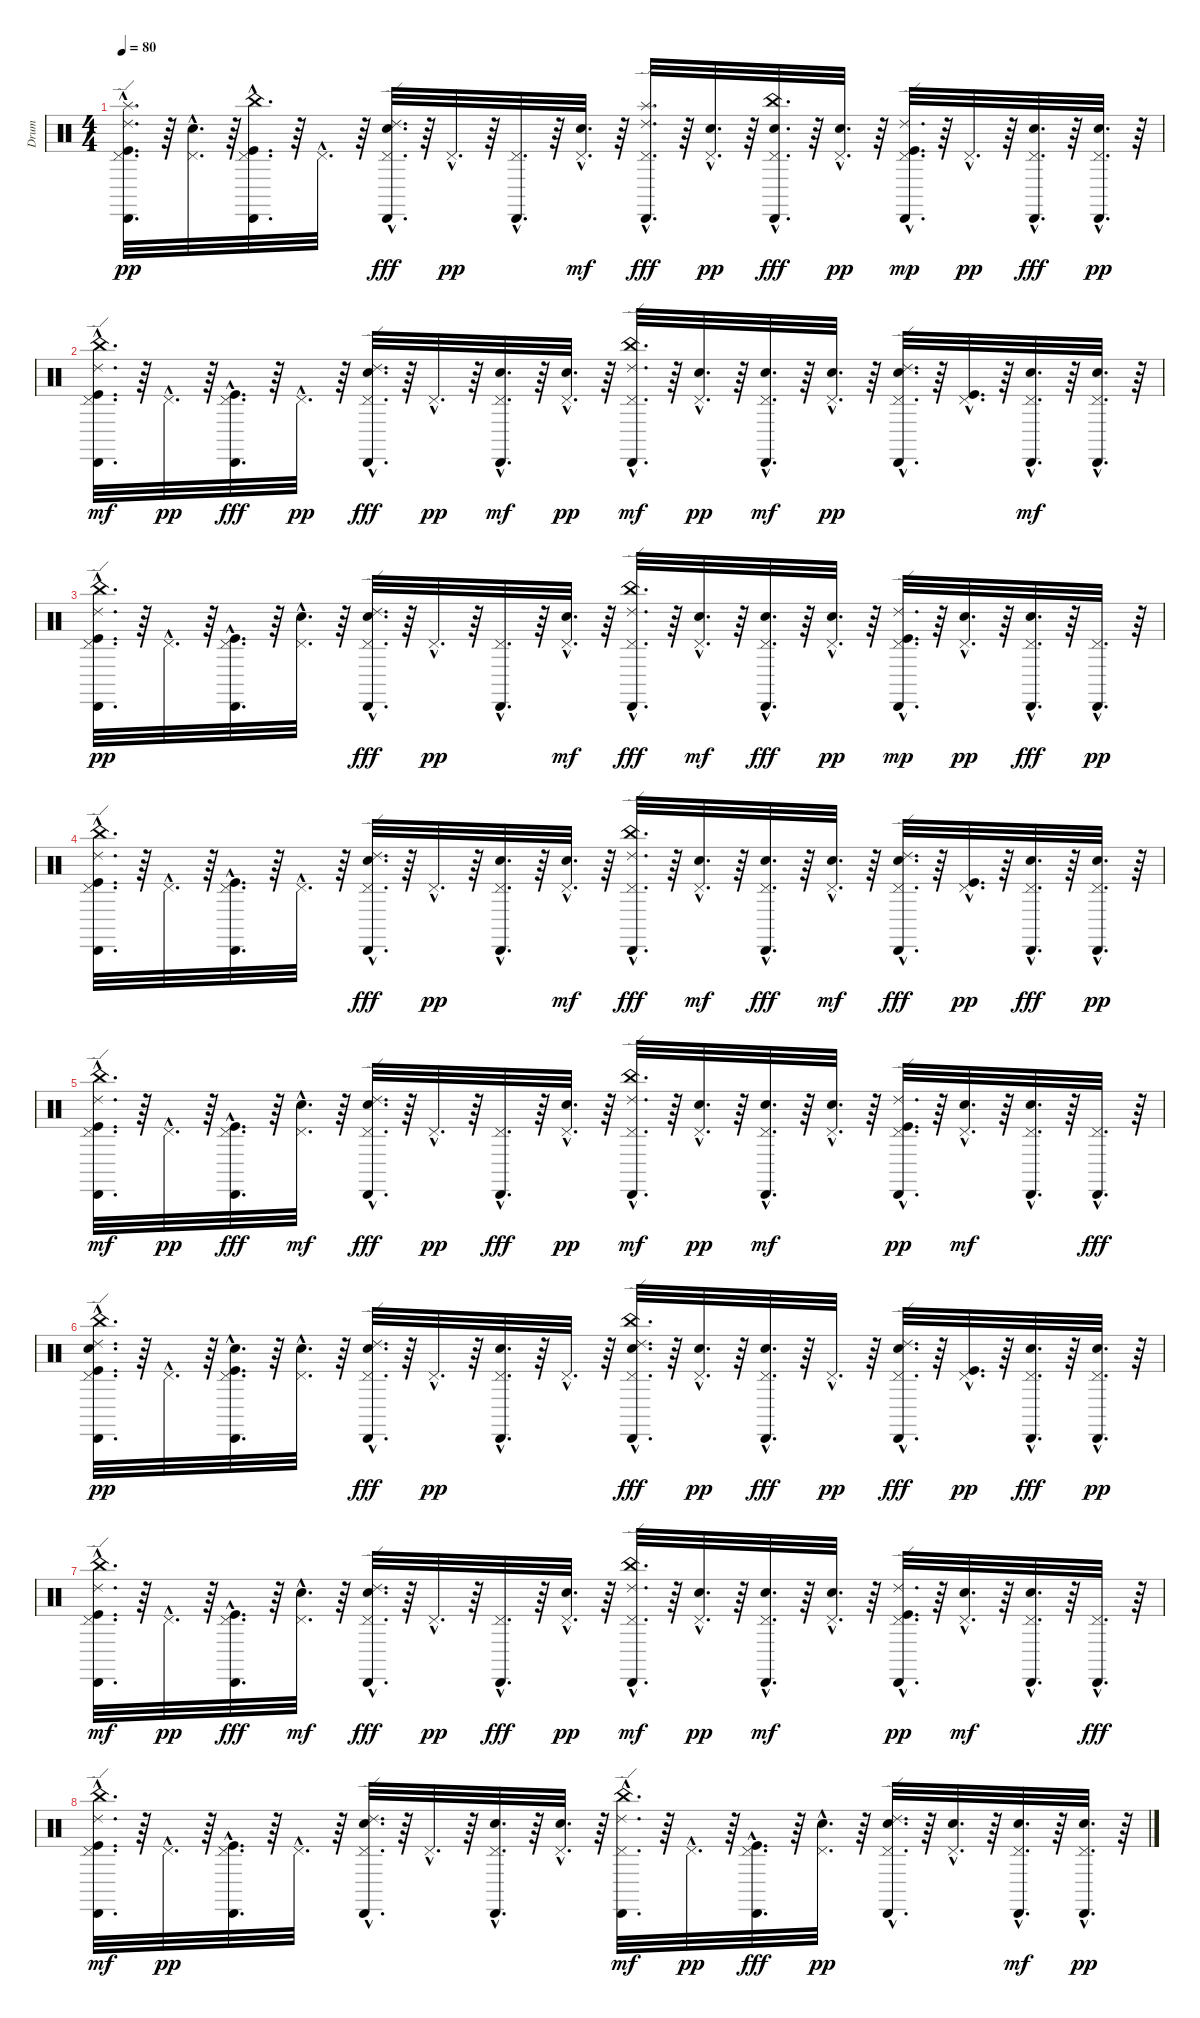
\track ("Drum" "Drum") {instrument percussion}
\staff {score}
\articulation defaults
\ts (4 4)
\tempo 80
\clef neutral
\ks c
("Splash (hit)"{hac} "Ride (edge) 2"{hac} "Kick (hit)"{hac} "Cabasa (hit)"{hac} "Pedal Hi-Hat (hit)"{hac}).32{d dy pp} r.64 ("Pedal Hi-Hat (hit)"{hac} "Snare (hit) 2"{hac}).32{d} r.64 ("China (hit)"{hac} "Kick (hit)"{hac} "Cabasa (hit)"{hac} "Pedal Hi-Hat (hit)"{hac}).32{d} r.64 "Pedal Hi-Hat (hit)"{hac}.32{d} r.64 ("Cabasa (hit)"{hac} "Snare (hit) 2"{hac} "Pedal Hi-Hat (hit)"{hac} "Ride (edge) 2"{hac}).32{d dy fff} r.64 "Pedal Hi-Hat (hit)"{hac}.32{d dy pp} r.64 ("Cabasa (hit)"{hac} "Pedal Hi-Hat (hit)"{hac}).32{d} r.64 ("Pedal Hi-Hat (hit)"{hac} "Snare (hit) 2"{hac}).32{d dy mf} r.64 ("Splash (hit)"{hac} "Pedal Hi-Hat (hit)"{hac} "Cabasa (hit)"{hac} "Ride (edge) 2"{hac}).32{d dy fff} r.64 ("Pedal Hi-Hat (hit)"{hac} "Snare (hit) 2"{hac}).32{d dy pp} r.64 ("China (hit)"{hac} "Snare (hit) 2"{hac} "Pedal Hi-Hat (hit)"{hac} "Cabasa (hit)"{hac}).32{d dy fff} r.64 ("Snare (hit) 2"{hac} "Pedal Hi-Hat (hit)"{hac}).32{d dy pp} r.64 ("Pedal Hi-Hat (hit)"{hac} "Cabasa (hit)"{hac} "Ride (edge) 2"{hac} "Kick (hit)"{hac}).32{d dy mp} r.64 "Pedal Hi-Hat (hit)"{hac}.32{d dy pp} r.64 ("Snare (hit) 2"{hac} "Pedal Hi-Hat (hit)"{hac} "Cabasa (hit)"{hac}).32{d dy fff} r.64 ("Snare (hit) 2"{hac} "Cabasa (hit)"{hac} "Pedal Hi-Hat (hit)"{hac}).32{d dy pp} r.64 |
("Pedal Hi-Hat (hit)"{hac} "Cabasa (hit)"{hac} "Kick (hit)"{hac} "Ride (edge) 2"{hac} "China (hit)"{hac}).32{d dy mf} r.64 "Pedal Hi-Hat (hit)"{hac}.32{d dy pp} r.64 ("Pedal Hi-Hat (hit)"{hac} "Cabasa (hit)"{hac} "Kick (hit)"{hac}).32{d dy fff} r.64 "Pedal Hi-Hat (hit)"{hac}.32{d dy pp} r.64 ("Ride (edge) 2"{hac} "Pedal Hi-Hat (hit)"{hac} "Snare (hit) 2"{hac} "Cabasa (hit)"{hac}).32{d dy fff} r.64 "Pedal Hi-Hat (hit)"{hac}.32{d dy pp} r.64 ("Pedal Hi-Hat (hit)"{hac} "Cabasa (hit)"{hac} "Snare (hit) 2"{hac}).32{d dy mf} r.64 ("Snare (hit) 2"{hac} "Pedal Hi-Hat (hit)"{hac}).32{d dy pp} r.64 ("Ride (edge) 2"{hac} "Cabasa (hit)"{hac} "Pedal Hi-Hat (hit)"{hac} "China (hit)"{hac}).32{d dy mf} r.64 ("Snare (hit) 2"{hac} "Pedal Hi-Hat (hit)"{hac}).32{d dy pp} r.64 ("Cabasa (hit)"{hac} "Pedal Hi-Hat (hit)"{hac} "Snare (hit) 2"{hac}).32{d dy mf} r.64 ("Snare (hit) 2"{hac} "Pedal Hi-Hat (hit)"{hac}).32{d dy pp} r.64 ("Ride (edge) 2"{hac} "Cabasa (hit)"{hac} "Snare (hit) 2"{hac} "Pedal Hi-Hat (hit)"{hac}).32{d} r.64 ("Pedal Hi-Hat (hit)"{hac} "Kick (hit)"{hac}).32{d} r.64 ("Cabasa (hit)"{hac} "Pedal Hi-Hat (hit)"{hac} "Snare (hit) 2"{hac}).32{d dy mf} r.64 ("Pedal Hi-Hat (hit)"{hac} "Cabasa (hit)"{hac} "Snare (hit) 2"{hac}).32{d} r.64 |
("China (hit)"{hac} "Ride (edge) 2"{hac} "Kick (hit)"{hac} "Cabasa (hit)"{hac} "Pedal Hi-Hat (hit)"{hac}).32{d dy pp} r.64 "Pedal Hi-Hat (hit)"{hac}.32{d} r.64 ("Kick (hit)"{hac} "Cabasa (hit)"{hac} "Pedal Hi-Hat (hit)"{hac}).32{d} r.64 ("Snare (hit) 2"{hac} "Pedal Hi-Hat (hit)"{hac}).32{d} r.64 ("Cabasa (hit)"{hac} "Snare (hit) 2"{hac} "Pedal Hi-Hat (hit)"{hac} "Ride (edge) 2"{hac}).32{d dy fff} r.64 "Pedal Hi-Hat (hit)"{hac}.32{d dy pp} r.64 ("Cabasa (hit)"{hac} "Pedal Hi-Hat (hit)"{hac}).32{d} r.64 ("Pedal Hi-Hat (hit)"{hac} "Snare (hit) 2"{hac}).32{d dy mf} r.64 ("China (hit)"{hac} "Pedal Hi-Hat (hit)"{hac} "Cabasa (hit)"{hac} "Ride (edge) 2"{hac}).32{d dy fff} r.64 ("Pedal Hi-Hat (hit)"{hac} "Snare (hit) 2"{hac}).32{d dy mf} r.64 ("Snare (hit) 2"{hac} "Pedal Hi-Hat (hit)"{hac} "Cabasa (hit)"{hac}).32{d dy fff} r.64 ("Snare (hit) 2"{hac} "Pedal Hi-Hat (hit)"{hac}).32{d dy pp} r.64 ("Pedal Hi-Hat (hit)"{hac} "Cabasa (hit)"{hac} "Ride (edge) 2"{hac} "Kick (hit)"{hac}).32{d dy mp} r.64 ("Snare (hit) 2"{hac} "Pedal Hi-Hat (hit)"{hac}).32{d dy pp} r.64 ("Snare (hit) 2"{hac} "Pedal Hi-Hat (hit)"{hac} "Cabasa (hit)"{hac}).32{d dy fff} r.64 ("Cabasa (hit)"{hac} "Pedal Hi-Hat (hit)"{hac}).32{d dy pp} r.64 |
("China (hit)"{hac} "Ride (edge) 2"{hac} "Kick (hit)"{hac} "Cabasa (hit)"{hac} "Pedal Hi-Hat (hit)"{hac}).32{d} r.64 "Pedal Hi-Hat (hit)"{hac}.32{d} r.64 ("Kick (hit)"{hac} "Cabasa (hit)"{hac} "Pedal Hi-Hat (hit)"{hac}).32{d} r.64 "Pedal Hi-Hat (hit)"{hac}.32{d} r.64 ("Cabasa (hit)"{hac} "Snare (hit) 2"{hac} "Pedal Hi-Hat (hit)"{hac} "Ride (edge) 2"{hac}).32{d dy fff} r.64 "Pedal Hi-Hat (hit)"{hac}.32{d dy pp} r.64 ("Snare (hit) 2"{hac} "Cabasa (hit)"{hac} "Pedal Hi-Hat (hit)"{hac}).32{d} r.64 ("Pedal Hi-Hat (hit)"{hac} "Snare (hit) 2"{hac}).32{d dy mf} r.64 ("China (hit)"{hac} "Pedal Hi-Hat (hit)"{hac} "Cabasa (hit)"{hac} "Ride (edge) 2"{hac}).32{d dy fff} r.64 ("Pedal Hi-Hat (hit)"{hac} "Snare (hit) 2"{hac}).32{d dy mf} r.64 ("Snare (hit) 2"{hac} "Pedal Hi-Hat (hit)"{hac} "Cabasa (hit)"{hac}).32{d dy fff} r.64 ("Pedal Hi-Hat (hit)"{hac} "Snare (hit) 2"{hac}).32{d dy mf} r.64 ("Pedal Hi-Hat (hit)"{hac} "Snare (hit) 2"{hac} "Cabasa (hit)"{hac} "Ride (edge) 2"{hac}).32{d dy fff} r.64 ("Kick (hit)"{hac} "Pedal Hi-Hat (hit)"{hac}).32{d dy pp} r.64 ("Snare (hit) 2"{hac} "Pedal Hi-Hat (hit)"{hac} "Cabasa (hit)"{hac}).32{d dy fff} r.64 ("Snare (hit) 2"{hac} "Cabasa (hit)"{hac} "Pedal Hi-Hat (hit)"{hac}).32{d dy pp} r.64 |
("Pedal Hi-Hat (hit)"{hac} "Cabasa (hit)"{hac} "Kick (hit)"{hac} "Ride (edge) 2"{hac} "China (hit)"{hac}).32{d dy mf} r.64 "Pedal Hi-Hat (hit)"{hac}.32{d dy pp} r.64 ("Pedal Hi-Hat (hit)"{hac} "Cabasa (hit)"{hac} "Kick (hit)"{hac}).32{d dy fff} r.64 ("Pedal Hi-Hat (hit)"{hac} "Snare (hit) 2"{hac}).32{d dy mf} r.64 ("Ride (edge) 2"{hac} "Pedal Hi-Hat (hit)"{hac} "Snare (hit) 2"{hac} "Cabasa (hit)"{hac}).32{d dy fff} r.64 "Pedal Hi-Hat (hit)"{hac}.32{d dy pp} r.64 ("Pedal Hi-Hat (hit)"{hac} "Cabasa (hit)"{hac}).32{d dy fff} r.64 ("Snare (hit) 2"{hac} "Pedal Hi-Hat (hit)"{hac}).32{d dy pp} r.64 ("Ride (edge) 2"{hac} "Cabasa (hit)"{hac} "Pedal Hi-Hat (hit)"{hac} "China (hit)"{hac}).32{d dy mf} r.64 ("Snare (hit) 2"{hac} "Pedal Hi-Hat (hit)"{hac}).32{d dy pp} r.64 ("Cabasa (hit)"{hac} "Pedal Hi-Hat (hit)"{hac} "Snare (hit) 2"{hac}).32{d dy mf} r.64 ("Pedal Hi-Hat (hit)"{hac} "Snare (hit) 2"{hac}).32{d} r.64 ("Kick (hit)"{hac} "Ride (edge) 2"{hac} "Cabasa (hit)"{hac} "Pedal Hi-Hat (hit)"{hac}).32{d dy pp} r.64 ("Pedal Hi-Hat (hit)"{hac} "Snare (hit) 2"{hac}).32{d dy mf} r.64 ("Cabasa (hit)"{hac} "Pedal Hi-Hat (hit)"{hac} "Snare (hit) 2"{hac}).32{d} r.64 ("Pedal Hi-Hat (hit)"{hac} "Cabasa (hit)"{hac}).32{d dy fff} r.64 |
("Snare (hit) 2"{hac} "China (hit)"{hac} "Ride (edge) 2"{hac} "Kick (hit)"{hac} "Cabasa (hit)"{hac} "Pedal Hi-Hat (hit)"{hac}).32{d dy pp} r.64 "Pedal Hi-Hat (hit)"{hac}.32{d} r.64 ("Snare (hit) 2"{hac} "Kick (hit)"{hac} "Cabasa (hit)"{hac} "Pedal Hi-Hat (hit)"{hac}).32{d} r.64 ("Snare (hit) 2"{hac} "Pedal Hi-Hat (hit)"{hac}).32{d} r.64 ("Snare (hit) 2"{hac} "Cabasa (hit)"{hac} "Pedal Hi-Hat (hit)"{hac} "Ride (edge) 2"{hac}).32{d dy fff} r.64 "Pedal Hi-Hat (hit)"{hac}.32{d dy pp} r.64 ("Snare (hit) 2"{hac} "Cabasa (hit)"{hac} "Pedal Hi-Hat (hit)"{hac}).32{d} r.64 "Pedal Hi-Hat (hit)"{hac}.32{d} r.64 ("Snare (hit) 2"{hac} "China (hit)"{hac} "Pedal Hi-Hat (hit)"{hac} "Cabasa (hit)"{hac} "Ride (edge) 2"{hac}).32{d dy fff} r.64 ("Snare (hit) 2"{hac} "Pedal Hi-Hat (hit)"{hac}).32{d dy pp} r.64 ("Snare (hit) 2"{hac} "Pedal Hi-Hat (hit)"{hac} "Cabasa (hit)"{hac}).32{d dy fff} r.64 "Pedal Hi-Hat (hit)"{hac}.32{d dy pp} r.64 ("Snare (hit) 2"{hac} "Pedal Hi-Hat (hit)"{hac} "Cabasa (hit)"{hac} "Ride (edge) 2"{hac}).32{d dy fff} r.64 ("Kick (hit)"{hac} "Pedal Hi-Hat (hit)"{hac}).32{d dy pp} r.64 ("Snare (hit) 2"{hac} "Pedal Hi-Hat (hit)"{hac} "Cabasa (hit)"{hac}).32{d dy fff} r.64 ("Snare (hit) 2"{hac} "Cabasa (hit)"{hac} "Pedal Hi-Hat (hit)"{hac}).32{d dy pp} r.64 |
("Pedal Hi-Hat (hit)"{hac} "Cabasa (hit)"{hac} "Kick (hit)"{hac} "Ride (edge) 2"{hac} "China (hit)"{hac}).32{d dy mf} r.64 "Pedal Hi-Hat (hit)"{hac}.32{d dy pp} r.64 ("Pedal Hi-Hat (hit)"{hac} "Cabasa (hit)"{hac} "Kick (hit)"{hac}).32{d dy fff} r.64 ("Pedal Hi-Hat (hit)"{hac} "Snare (hit) 2"{hac}).32{d dy mf} r.64 ("Ride (edge) 2"{hac} "Pedal Hi-Hat (hit)"{hac} "Snare (hit) 2"{hac} "Cabasa (hit)"{hac}).32{d dy fff} r.64 "Pedal Hi-Hat (hit)"{hac}.32{d dy pp} r.64 ("Pedal Hi-Hat (hit)"{hac} "Cabasa (hit)"{hac}).32{d dy fff} r.64 ("Snare (hit) 2"{hac} "Pedal Hi-Hat (hit)"{hac}).32{d dy pp} r.64 ("Ride (edge) 2"{hac} "Cabasa (hit)"{hac} "Pedal Hi-Hat (hit)"{hac} "China (hit)"{hac}).32{d dy mf} r.64 ("Snare (hit) 2"{hac} "Pedal Hi-Hat (hit)"{hac}).32{d dy pp} r.64 ("Cabasa (hit)"{hac} "Pedal Hi-Hat (hit)"{hac} "Snare (hit) 2"{hac}).32{d dy mf} r.64 ("Pedal Hi-Hat (hit)"{hac} "Snare (hit) 2"{hac}).32{d} r.64 ("Kick (hit)"{hac} "Ride (edge) 2"{hac} "Cabasa (hit)"{hac} "Pedal Hi-Hat (hit)"{hac}).32{d dy pp} r.64 ("Pedal Hi-Hat (hit)"{hac} "Snare (hit) 2"{hac}).32{d dy mf} r.64 ("Cabasa (hit)"{hac} "Pedal Hi-Hat (hit)"{hac} "Snare (hit) 2"{hac}).32{d} r.64 ("Pedal Hi-Hat (hit)"{hac} "Cabasa (hit)"{hac}).32{d dy fff} r.64 |
("Pedal Hi-Hat (hit)"{hac} "China (hit)"{hac} "Cabasa (hit)"{hac} "Ride (edge) 2"{hac} "Kick (hit)"{hac}).32{d dy mf} r.64 "Pedal Hi-Hat (hit)"{hac}.32{d dy pp} r.64 ("Cabasa (hit)"{hac} "Kick (hit)"{hac} "Pedal Hi-Hat (hit)"{hac}).32{d} r.64 "Pedal Hi-Hat (hit)"{hac}.32{d} r.64 ("Cabasa (hit)"{hac} "Snare (hit) 2"{hac} "Ride (edge) 2"{hac} "Pedal Hi-Hat (hit)"{hac}).32{d} r.64 "Pedal Hi-Hat (hit)"{hac}.32{d} r.64 ("Snare (hit) 2"{hac} "Cabasa (hit)"{hac} "Pedal Hi-Hat (hit)"{hac}).32{d} r.64 ("Snare (hit) 2"{hac} "Pedal Hi-Hat (hit)"{hac}).32{d} r.64 ("China (hit)"{hac} "Pedal Hi-Hat (hit)"{hac} "Cabasa (hit)"{hac} "Ride (edge) 2"{hac}).32{d dy mf} r.64 "Pedal Hi-Hat (hit)"{hac}.32{d dy pp} r.64 ("Kick (hit)"{hac} "Pedal Hi-Hat (hit)"{hac} "Cabasa (hit)"{hac}).32{d dy fff} r.64 ("Snare (hit) 2"{hac} "Pedal Hi-Hat (hit)"{hac}).32{d dy pp} r.64 ("Snare (hit) 2"{hac} "Cabasa (hit)"{hac} "Ride (edge) 2"{hac} "Pedal Hi-Hat (hit)"{hac}).32{d} r.64 ("Snare (hit) 2"{hac} "Pedal Hi-Hat (hit)"{hac}).32{d} r.64 ("Cabasa (hit)"{hac} "Pedal Hi-Hat (hit)"{hac} "Snare (hit) 2"{hac}).32{d dy mf} r.64 ("Snare (hit) 2"{hac} "Cabasa (hit)"{hac} "Pedal Hi-Hat (hit)"{hac}).32{d dy pp} r.64
